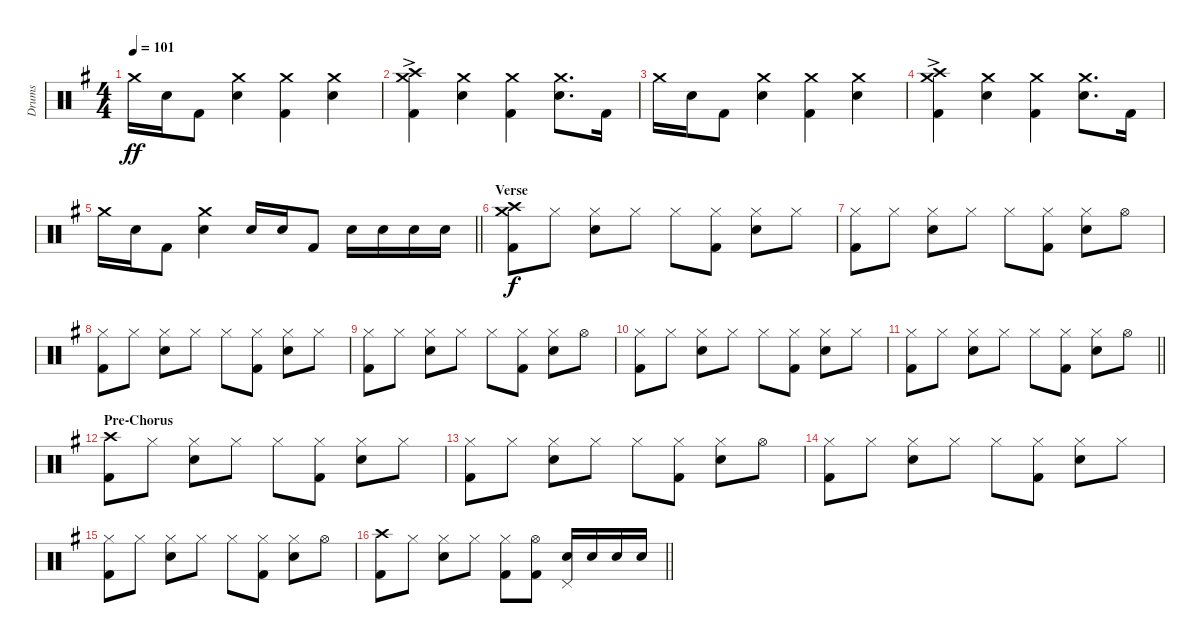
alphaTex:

\track ("Drums" "Drums") {instrument percussion}
\staff {score}
\articulation defaults
\ts (4 4)
\tempo 101
\clef neutral
\ks eminor "Crash medium (hit)".16{dy ff} "Snare (hit) 2".16 "Kick (hit) 2".8
("Crash medium (hit)" "Snare (hit) 2").4 ("Crash medium (hit)" "Kick (hit) 2").4 ("Crash medium (hit)" "Snare (hit) 2").4 |
("Crash medium (hit)"{ac} "Crash high (hit)"{ac} "Kick (hit) 2").4 ("Crash medium (hit)" "Snare (hit) 2").4 ("Crash medium (hit)" "Kick (hit) 2").4 ("Crash medium (hit)" "Snare (hit) 2").8{d} "Kick (hit) 2".16 |
"Crash medium (hit)".16 "Snare (hit) 2".16 "Kick (hit) 2".8 ("Crash medium (hit)" "Snare (hit) 2").4 ("Crash medium (hit)" "Kick (hit) 2").4 ("Crash medium (hit)" "Snare (hit) 2").4 |
("Crash medium (hit)"{ac} "Crash high (hit)"{ac} "Kick (hit) 2").4 ("Crash medium (hit)" "Snare (hit) 2").4 ("Crash medium (hit)" "Kick (hit) 2").4 ("Crash medium (hit)" "Snare (hit) 2").8{d} "Kick (hit) 2".16 |
\barLineRight lightlight "Crash medium (hit)".16 "Snare (hit) 2".16 "Kick (hit) 2".8
("Crash medium (hit)" "Snare (hit) 2").4 "Snare (hit) 2".16 "Snare (hit) 2".16 "Kick (hit) 2".8 "Snare (hit) 2".16 "Snare (hit) 2".16 "Snare (hit) 2".16 "Snare (hit) 2".16 |
\section ("" "Verse")
("Crash high (hit)" "Crash medium (hit)" "Kick (hit) 2").8{dy f} "Hi-Hat (closed)".8 ("Hi-Hat (closed)" "Snare (hit) 2").8 "Hi-Hat (closed)".8 "Hi-Hat (closed)".8 ("Hi-Hat (closed)" "Kick (hit) 2").8 ("Hi-Hat (closed)" "Snare (hit) 2").8 "Hi-Hat (closed)".8 |
("Hi-Hat (closed)" "Kick (hit) 2").8 "Hi-Hat (closed)".8 ("Hi-Hat (closed)" "Snare (hit) 2").8 "Hi-Hat (closed)".8 "Hi-Hat (closed)".8 ("Hi-Hat (closed)" "Kick (hit) 2").8 ("Hi-Hat (closed)" "Snare (hit) 2").8 "Hi-Hat (open)".8 |
("Hi-Hat (closed)" "Kick (hit) 2").8 "Hi-Hat (closed)".8 ("Hi-Hat (closed)" "Snare (hit) 2").8 "Hi-Hat (closed)".8 "Hi-Hat (closed)".8 ("Hi-Hat (closed)" "Kick (hit) 2").8 ("Hi-Hat (closed)" "Snare (hit) 2").8 "Hi-Hat (closed)".8 |
("Hi-Hat (closed)" "Kick (hit) 2").8 "Hi-Hat (closed)".8 ("Hi-Hat (closed)" "Snare (hit) 2").8 "Hi-Hat (closed)".8 "Hi-Hat (closed)".8 ("Hi-Hat (closed)" "Kick (hit) 2").8 ("Hi-Hat (closed)" "Snare (hit) 2").8 "Hi-Hat (open)".8 |
("Hi-Hat (closed)" "Kick (hit) 2").8 "Hi-Hat (closed)".8 ("Hi-Hat (closed)" "Snare (hit) 2").8 "Hi-Hat (closed)".8 "Hi-Hat (closed)".8 ("Hi-Hat (closed)" "Kick (hit) 2").8 ("Hi-Hat (closed)" "Snare (hit) 2").8 "Hi-Hat (closed)".8 |
\barLineRight lightlight
("Hi-Hat (closed)" "Kick (hit) 2").8 "Hi-Hat (closed)".8 ("Hi-Hat (closed)" "Snare (hit) 2").8 "Hi-Hat (closed)".8 "Hi-Hat (closed)".8 ("Hi-Hat (closed)" "Kick (hit) 2").8 ("Hi-Hat (closed)" "Snare (hit) 2").8 "Hi-Hat (open)".8 |
\section ("" "Pre-Chorus")
("Crash high (hit)" "Kick (hit) 2").8 "Hi-Hat (closed)".8 ("Hi-Hat (closed)" "Snare (hit) 2").8 "Hi-Hat (closed)".8 "Hi-Hat (closed)".8 ("Hi-Hat (closed)" "Kick (hit) 2").8 ("Hi-Hat (closed)" "Snare (hit) 2").8 "Hi-Hat (closed)".8 |
("Hi-Hat (closed)" "Kick (hit) 2").8 "Hi-Hat (closed)".8 ("Hi-Hat (closed)" "Snare (hit) 2").8 "Hi-Hat (closed)".8 "Hi-Hat (closed)".8 ("Hi-Hat (closed)" "Kick (hit) 2").8 ("Hi-Hat (closed)" "Snare (hit) 2").8 "Hi-Hat (open)".8 |
("Hi-Hat (closed)" "Kick (hit) 2").8 "Hi-Hat (closed)".8 ("Hi-Hat (closed)" "Snare (hit) 2").8 "Hi-Hat (closed)".8 "Hi-Hat (closed)".8 ("Hi-Hat (closed)" "Kick (hit) 2").8 ("Hi-Hat (closed)" "Snare (hit) 2").8 "Hi-Hat (closed)".8 |
("Hi-Hat (closed)" "Kick (hit) 2").8 "Hi-Hat (closed)".8 ("Hi-Hat (closed)" "Snare (hit) 2").8 "Hi-Hat (closed)".8 "Hi-Hat (closed)".8 ("Hi-Hat (closed)" "Kick (hit) 2").8 ("Hi-Hat (closed)" "Snare (hit) 2").8 "Hi-Hat (open)".8 |
\barLineRight lightlight
("Crash high (hit)" "Kick (hit) 2").8 "Hi-Hat (closed)".8 ("Hi-Hat (closed)" "Snare (hit) 2").8 "Hi-Hat (closed)".8 ("Hi-Hat (closed)" "Kick (hit) 2").8 ("Hi-Hat (open)" "Kick (hit) 2").8 ("Snare (hit) 2" "Pedal Hi-Hat (hit)").16 "Snare (hit) 2".16 "Snare (hit) 2".16 "Snare (hit) 2".16
